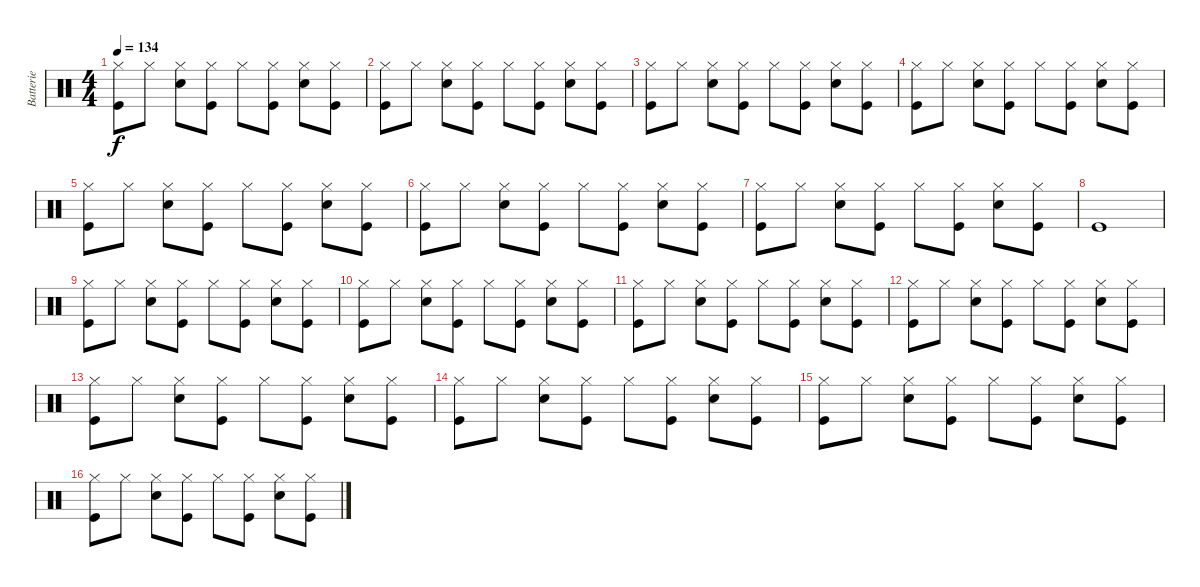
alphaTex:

\track ("Batterie" "Batterie") {instrument percussion}
\staff {score}
\articulation defaults
\ts (4 4)
\tempo 134
\clef neutral
\ks c
("Kick (hit)" "Hi-Hat (closed)").8{dy f} "Hi-Hat (closed)".8 ("Snare (hit) 2" "Hi-Hat (closed)").8 ("Kick (hit)" "Hi-Hat (closed)").8 "Hi-Hat (closed)".8 ("Kick (hit)" "Hi-Hat (closed)").8 ("Snare (hit) 2" "Hi-Hat (closed)").8 ("Kick (hit)" "Hi-Hat (closed)").8 |
("Kick (hit)" "Hi-Hat (closed)").8 "Hi-Hat (closed)".8 ("Snare (hit) 2" "Hi-Hat (closed)").8 ("Kick (hit)" "Hi-Hat (closed)").8 "Hi-Hat (closed)".8 ("Kick (hit)" "Hi-Hat (closed)").8 ("Snare (hit) 2" "Hi-Hat (closed)").8 ("Kick (hit)" "Hi-Hat (closed)").8 |
("Kick (hit)" "Hi-Hat (closed)").8 "Hi-Hat (closed)".8 ("Snare (hit) 2" "Hi-Hat (closed)").8 ("Kick (hit)" "Hi-Hat (closed)").8 "Hi-Hat (closed)".8 ("Kick (hit)" "Hi-Hat (closed)").8 ("Snare (hit) 2" "Hi-Hat (closed)").8 ("Kick (hit)" "Hi-Hat (closed)").8 |
("Kick (hit)" "Hi-Hat (closed)").8 "Hi-Hat (closed)".8 ("Snare (hit) 2" "Hi-Hat (closed)").8 ("Kick (hit)" "Hi-Hat (closed)").8 "Hi-Hat (closed)".8 ("Kick (hit)" "Hi-Hat (closed)").8 ("Snare (hit) 2" "Hi-Hat (closed)").8 ("Kick (hit)" "Hi-Hat (closed)").8 |
("Kick (hit)" "Hi-Hat (closed)").8 "Hi-Hat (closed)".8 ("Snare (hit) 2" "Hi-Hat (closed)").8 ("Kick (hit)" "Hi-Hat (closed)").8 "Hi-Hat (closed)".8 ("Kick (hit)" "Hi-Hat (closed)").8 ("Snare (hit) 2" "Hi-Hat (closed)").8 ("Kick (hit)" "Hi-Hat (closed)").8 |
("Kick (hit)" "Hi-Hat (closed)").8 "Hi-Hat (closed)".8 ("Snare (hit) 2" "Hi-Hat (closed)").8 ("Kick (hit)" "Hi-Hat (closed)").8 "Hi-Hat (closed)".8 ("Kick (hit)" "Hi-Hat (closed)").8 ("Snare (hit) 2" "Hi-Hat (closed)").8 ("Kick (hit)" "Hi-Hat (closed)").8 |
("Kick (hit)" "Hi-Hat (closed)").8 "Hi-Hat (closed)".8 ("Snare (hit) 2" "Hi-Hat (closed)").8 ("Kick (hit)" "Hi-Hat (closed)").8 "Hi-Hat (closed)".8 ("Kick (hit)" "Hi-Hat (closed)").8 ("Snare (hit) 2" "Hi-Hat (closed)").8 ("Kick (hit)" "Hi-Hat (closed)").8 |
"Kick (hit)".1 |
("Kick (hit)" "Hi-Hat (closed)").8 "Hi-Hat (closed)".8 ("Snare (hit) 2" "Hi-Hat (closed)").8 ("Kick (hit)" "Hi-Hat (closed)").8 "Hi-Hat (closed)".8 ("Kick (hit)" "Hi-Hat (closed)").8 ("Snare (hit) 2" "Hi-Hat (closed)").8 ("Kick (hit)" "Hi-Hat (closed)").8 |
("Kick (hit)" "Hi-Hat (closed)").8 "Hi-Hat (closed)".8 ("Snare (hit) 2" "Hi-Hat (closed)").8 ("Kick (hit)" "Hi-Hat (closed)").8 "Hi-Hat (closed)".8 ("Kick (hit)" "Hi-Hat (closed)").8 ("Snare (hit) 2" "Hi-Hat (closed)").8 ("Kick (hit)" "Hi-Hat (closed)").8 |
("Kick (hit)" "Hi-Hat (closed)").8 "Hi-Hat (closed)".8 ("Snare (hit) 2" "Hi-Hat (closed)").8 ("Kick (hit)" "Hi-Hat (closed)").8 "Hi-Hat (closed)".8 ("Kick (hit)" "Hi-Hat (closed)").8 ("Snare (hit) 2" "Hi-Hat (closed)").8 ("Kick (hit)" "Hi-Hat (closed)").8 |
("Kick (hit)" "Hi-Hat (closed)").8 "Hi-Hat (closed)".8 ("Snare (hit) 2" "Hi-Hat (closed)").8 ("Kick (hit)" "Hi-Hat (closed)").8 "Hi-Hat (closed)".8 ("Kick (hit)" "Hi-Hat (closed)").8 ("Snare (hit) 2" "Hi-Hat (closed)").8 ("Kick (hit)" "Hi-Hat (closed)").8 |
("Kick (hit)" "Hi-Hat (closed)").8 "Hi-Hat (closed)".8 ("Snare (hit) 2" "Hi-Hat (closed)").8 ("Kick (hit)" "Hi-Hat (closed)").8 "Hi-Hat (closed)".8 ("Kick (hit)" "Hi-Hat (closed)").8 ("Snare (hit) 2" "Hi-Hat (closed)").8 ("Kick (hit)" "Hi-Hat (closed)").8 |
("Kick (hit)" "Hi-Hat (closed)").8 "Hi-Hat (closed)".8 ("Snare (hit) 2" "Hi-Hat (closed)").8 ("Kick (hit)" "Hi-Hat (closed)").8 "Hi-Hat (closed)".8 ("Kick (hit)" "Hi-Hat (closed)").8 ("Snare (hit) 2" "Hi-Hat (closed)").8 ("Kick (hit)" "Hi-Hat (closed)").8 |
("Kick (hit)" "Hi-Hat (closed)").8 "Hi-Hat (closed)".8 ("Snare (hit) 2" "Hi-Hat (closed)").8 ("Kick (hit)" "Hi-Hat (closed)").8 "Hi-Hat (closed)".8 ("Kick (hit)" "Hi-Hat (closed)").8 ("Snare (hit) 2" "Hi-Hat (closed)").8 ("Kick (hit)" "Hi-Hat (closed)").8 |
("Kick (hit)" "Hi-Hat (closed)").8 "Hi-Hat (closed)".8 ("Snare (hit) 2" "Hi-Hat (closed)").8 ("Kick (hit)" "Hi-Hat (closed)").8 "Hi-Hat (closed)".8 ("Kick (hit)" "Hi-Hat (closed)").8 ("Snare (hit) 2" "Hi-Hat (closed)").8 ("Kick (hit)" "Hi-Hat (closed)").8
